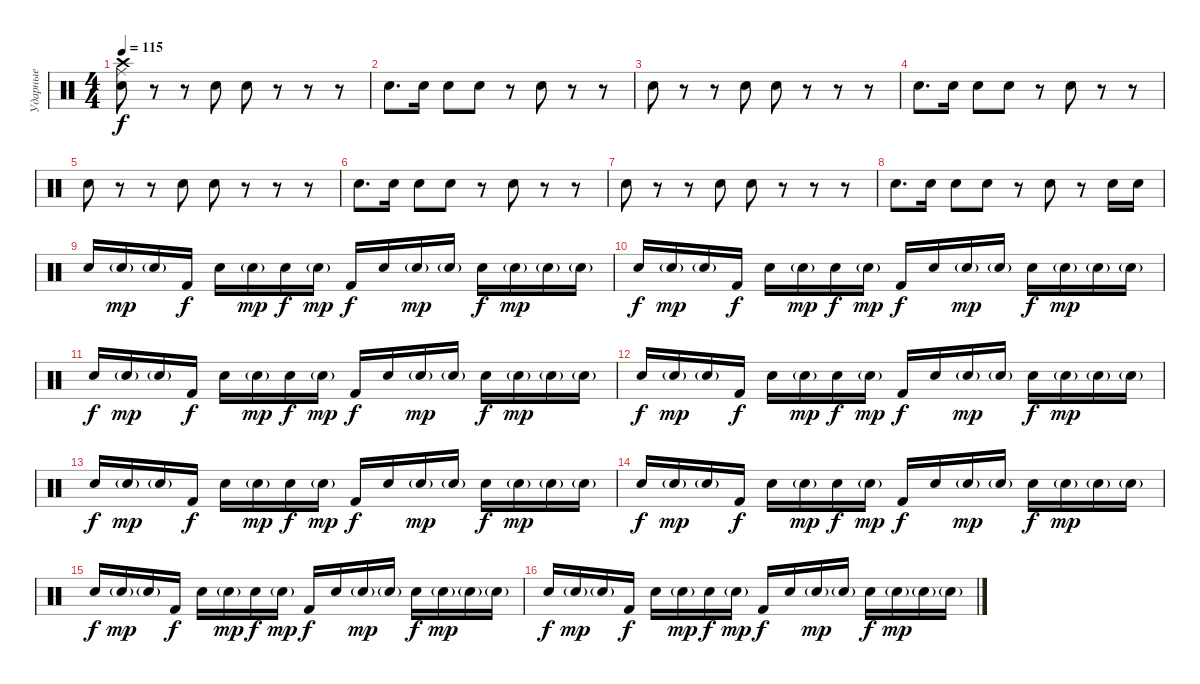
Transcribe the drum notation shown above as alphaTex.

\track ("Ударные" "Ударные") {instrument percussion}
\staff {score}
\articulation defaults
\ts (4 4)
\tempo 115
\clef neutral
\ks c
("Crash high (hit)" "Ride (middle)" "Electric Snare (hit)").8{dy f} r.8 r.8 "Electric Snare (hit)".8 "Electric Snare (hit)".8 r.8 r.8 r.8 |
"Electric Snare (hit)".8{d} "Electric Snare (hit)".16 "Electric Snare (hit)".8 "Electric Snare (hit)".8 r.8 "Electric Snare (hit)".8 r.8 r.8 |
"Electric Snare (hit)".8 r.8 r.8 "Electric Snare (hit)".8 "Electric Snare (hit)".8 r.8 r.8 r.8 |
"Electric Snare (hit)".8{d} "Electric Snare (hit)".16 "Electric Snare (hit)".8 "Electric Snare (hit)".8 r.8 "Electric Snare (hit)".8 r.8 r.8 |
"Electric Snare (hit)".8 r.8 r.8 "Electric Snare (hit)".8 "Electric Snare (hit)".8 r.8 r.8 r.8 |
"Electric Snare (hit)".8{d} "Electric Snare (hit)".16 "Electric Snare (hit)".8 "Electric Snare (hit)".8 r.8 "Electric Snare (hit)".8 r.8 r.8 |
"Electric Snare (hit)".8 r.8 r.8 "Electric Snare (hit)".8 "Electric Snare (hit)".8 r.8 r.8 r.8 |
"Electric Snare (hit)".8{d} "Electric Snare (hit)".16 "Electric Snare (hit)".8 "Electric Snare (hit)".8 r.8 "Electric Snare (hit)".8 r.8 "Electric Snare (hit)".16 "Electric Snare (hit)".16 |
"Electric Snare (hit)".16 "Electric Snare (hit)"{g}.16{dy mp} "Electric Snare (hit)"{g}.16 "Kick (hit) 2".16{dy f} "Electric Snare (hit)".16 "Electric Snare (hit)"{g}.16{dy mp} "Electric Snare (hit)".16{dy f} "Electric Snare (hit)"{g}.16{dy mp} "Kick (hit) 2".16{dy f} "Electric Snare (hit)".16 "Electric Snare (hit)"{g}.16{dy mp} "Electric Snare (hit)"{g}.16 "Electric Snare (hit)".16{dy f} "Electric Snare (hit)"{g}.16{dy mp} "Electric Snare (hit)"{g}.16 "Electric Snare (hit)"{g}.16 |
"Electric Snare (hit)".16{dy f} "Electric Snare (hit)"{g}.16{dy mp} "Electric Snare (hit)"{g}.16 "Kick (hit) 2".16{dy f} "Electric Snare (hit)".16 "Electric Snare (hit)"{g}.16{dy mp} "Electric Snare (hit)".16{dy f} "Electric Snare (hit)"{g}.16{dy mp} "Kick (hit) 2".16{dy f} "Electric Snare (hit)".16 "Electric Snare (hit)"{g}.16{dy mp} "Electric Snare (hit)"{g}.16 "Electric Snare (hit)".16{dy f} "Electric Snare (hit)"{g}.16{dy mp} "Electric Snare (hit)"{g}.16 "Electric Snare (hit)"{g}.16 |
"Electric Snare (hit)".16{dy f} "Electric Snare (hit)"{g}.16{dy mp} "Electric Snare (hit)"{g}.16 "Kick (hit) 2".16{dy f} "Electric Snare (hit)".16 "Electric Snare (hit)"{g}.16{dy mp} "Electric Snare (hit)".16{dy f} "Electric Snare (hit)"{g}.16{dy mp} "Kick (hit) 2".16{dy f} "Electric Snare (hit)".16 "Electric Snare (hit)"{g}.16{dy mp} "Electric Snare (hit)"{g}.16 "Electric Snare (hit)".16{dy f} "Electric Snare (hit)"{g}.16{dy mp} "Electric Snare (hit)"{g}.16 "Electric Snare (hit)"{g}.16 |
"Electric Snare (hit)".16{dy f} "Electric Snare (hit)"{g}.16{dy mp} "Electric Snare (hit)"{g}.16 "Kick (hit) 2".16{dy f} "Electric Snare (hit)".16 "Electric Snare (hit)"{g}.16{dy mp} "Electric Snare (hit)".16{dy f} "Electric Snare (hit)"{g}.16{dy mp} "Kick (hit) 2".16{dy f} "Electric Snare (hit)".16 "Electric Snare (hit)"{g}.16{dy mp} "Electric Snare (hit)"{g}.16 "Electric Snare (hit)".16{dy f} "Electric Snare (hit)"{g}.16{dy mp} "Electric Snare (hit)"{g}.16 "Electric Snare (hit)"{g}.16 |
"Electric Snare (hit)".16{dy f} "Electric Snare (hit)"{g}.16{dy mp} "Electric Snare (hit)"{g}.16 "Kick (hit) 2".16{dy f} "Electric Snare (hit)".16 "Electric Snare (hit)"{g}.16{dy mp} "Electric Snare (hit)".16{dy f} "Electric Snare (hit)"{g}.16{dy mp} "Kick (hit) 2".16{dy f} "Electric Snare (hit)".16 "Electric Snare (hit)"{g}.16{dy mp} "Electric Snare (hit)"{g}.16 "Electric Snare (hit)".16{dy f} "Electric Snare (hit)"{g}.16{dy mp} "Electric Snare (hit)"{g}.16 "Electric Snare (hit)"{g}.16 |
"Electric Snare (hit)".16{dy f} "Electric Snare (hit)"{g}.16{dy mp} "Electric Snare (hit)"{g}.16 "Kick (hit) 2".16{dy f} "Electric Snare (hit)".16 "Electric Snare (hit)"{g}.16{dy mp} "Electric Snare (hit)".16{dy f} "Electric Snare (hit)"{g}.16{dy mp} "Kick (hit) 2".16{dy f} "Electric Snare (hit)".16 "Electric Snare (hit)"{g}.16{dy mp} "Electric Snare (hit)"{g}.16 "Electric Snare (hit)".16{dy f} "Electric Snare (hit)"{g}.16{dy mp} "Electric Snare (hit)"{g}.16 "Electric Snare (hit)"{g}.16 |
"Electric Snare (hit)".16{dy f} "Electric Snare (hit)"{g}.16{dy mp} "Electric Snare (hit)"{g}.16 "Kick (hit) 2".16{dy f} "Electric Snare (hit)".16 "Electric Snare (hit)"{g}.16{dy mp} "Electric Snare (hit)".16{dy f} "Electric Snare (hit)"{g}.16{dy mp} "Kick (hit) 2".16{dy f} "Electric Snare (hit)".16 "Electric Snare (hit)"{g}.16{dy mp} "Electric Snare (hit)"{g}.16 "Electric Snare (hit)".16{dy f} "Electric Snare (hit)"{g}.16{dy mp} "Electric Snare (hit)"{g}.16 "Electric Snare (hit)"{g}.16 |
"Electric Snare (hit)".16{dy f} "Electric Snare (hit)"{g}.16{dy mp} "Electric Snare (hit)"{g}.16 "Kick (hit) 2".16{dy f} "Electric Snare (hit)".16 "Electric Snare (hit)"{g}.16{dy mp} "Electric Snare (hit)".16{dy f} "Electric Snare (hit)"{g}.16{dy mp} "Kick (hit) 2".16{dy f} "Electric Snare (hit)".16 "Electric Snare (hit)"{g}.16{dy mp} "Electric Snare (hit)"{g}.16 "Electric Snare (hit)".16{dy f} "Electric Snare (hit)"{g}.16{dy mp} "Electric Snare (hit)"{g}.16 "Electric Snare (hit)"{g}.16
